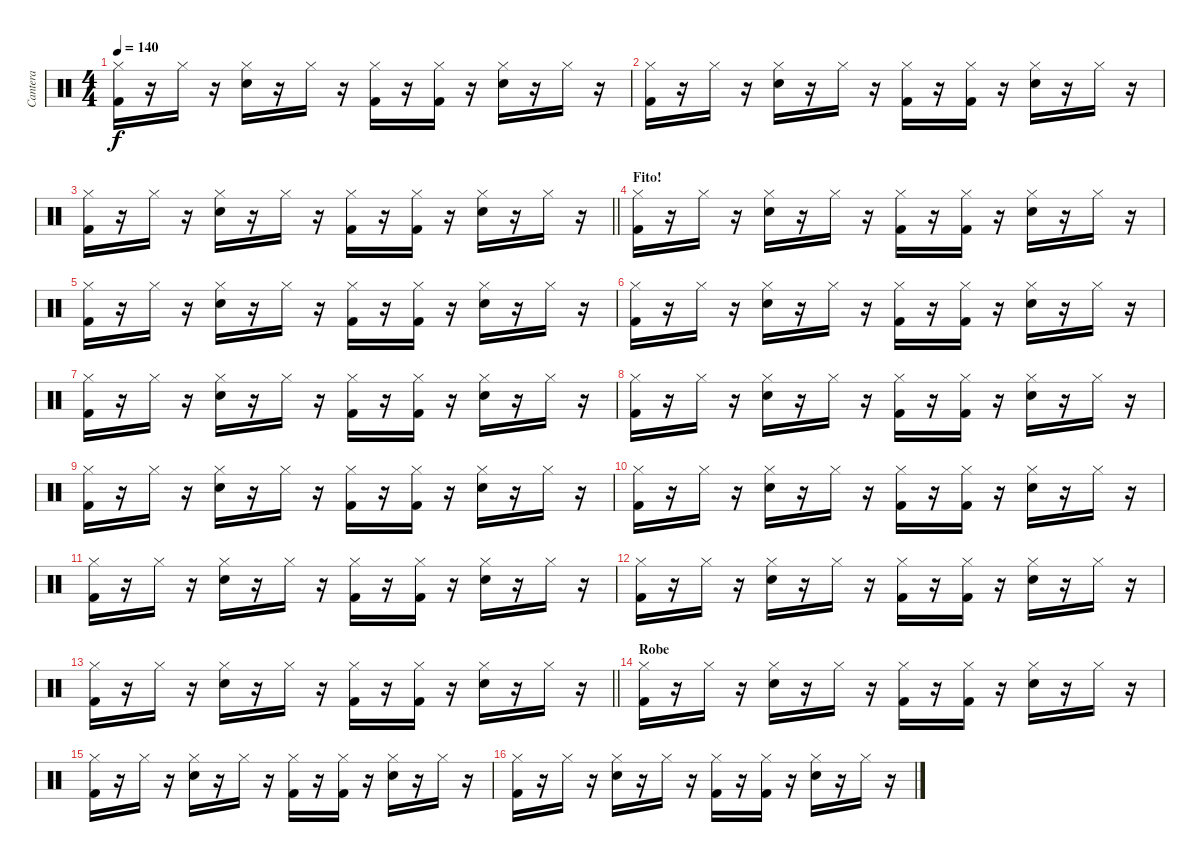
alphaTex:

\track ("Cantera" "Cantera") {instrument percussion}
\staff {score}
\articulation defaults
\ts (4 4)
\tempo 140
\clef neutral
\ks c
("Hi-Hat (closed)" "Kick (hit) 2").16{dy f} r.16 "Hi-Hat (closed)".16 r.16 ("Hi-Hat (closed)" "Snare (hit) 2").16 r.16 "Hi-Hat (closed)".16 r.16 ("Hi-Hat (closed)" "Kick (hit) 2").16 r.16 ("Hi-Hat (closed)" "Kick (hit) 2").16 r.16 ("Hi-Hat (closed)" "Snare (hit) 2").16 r.16 "Hi-Hat (closed)".16 r.16 |
("Hi-Hat (closed)" "Kick (hit) 2").16 r.16 "Hi-Hat (closed)".16 r.16 ("Hi-Hat (closed)" "Snare (hit) 2").16 r.16 "Hi-Hat (closed)".16 r.16 ("Hi-Hat (closed)" "Kick (hit) 2").16 r.16 ("Hi-Hat (closed)" "Kick (hit) 2").16 r.16 ("Hi-Hat (closed)" "Snare (hit) 2").16 r.16 "Hi-Hat (closed)".16 r.16 |
\barLineRight lightlight
("Hi-Hat (closed)" "Kick (hit) 2").16 r.16 "Hi-Hat (closed)".16 r.16 ("Hi-Hat (closed)" "Snare (hit) 2").16 r.16 "Hi-Hat (closed)".16 r.16 ("Hi-Hat (closed)" "Kick (hit) 2").16 r.16 ("Hi-Hat (closed)" "Kick (hit) 2").16 r.16 ("Hi-Hat (closed)" "Snare (hit) 2").16 r.16 "Hi-Hat (closed)".16 r.16 |
\section ("" "Fito!")
("Hi-Hat (closed)" "Kick (hit) 2").16 r.16 "Hi-Hat (closed)".16 r.16 ("Hi-Hat (closed)" "Snare (hit) 2").16 r.16 "Hi-Hat (closed)".16 r.16 ("Hi-Hat (closed)" "Kick (hit) 2").16 r.16 ("Hi-Hat (closed)" "Kick (hit) 2").16 r.16 ("Hi-Hat (closed)" "Snare (hit) 2").16 r.16 "Hi-Hat (closed)".16 r.16 |
("Hi-Hat (closed)" "Kick (hit) 2").16 r.16 "Hi-Hat (closed)".16 r.16 ("Hi-Hat (closed)" "Snare (hit) 2").16 r.16 "Hi-Hat (closed)".16 r.16 ("Hi-Hat (closed)" "Kick (hit) 2").16 r.16 ("Hi-Hat (closed)" "Kick (hit) 2").16 r.16 ("Hi-Hat (closed)" "Snare (hit) 2").16 r.16 "Hi-Hat (closed)".16 r.16 |
("Hi-Hat (closed)" "Kick (hit) 2").16 r.16 "Hi-Hat (closed)".16 r.16 ("Hi-Hat (closed)" "Snare (hit) 2").16 r.16 "Hi-Hat (closed)".16 r.16 ("Hi-Hat (closed)" "Kick (hit) 2").16 r.16 ("Hi-Hat (closed)" "Kick (hit) 2").16 r.16 ("Hi-Hat (closed)" "Snare (hit) 2").16 r.16 "Hi-Hat (closed)".16 r.16 |
("Hi-Hat (closed)" "Kick (hit) 2").16 r.16 "Hi-Hat (closed)".16 r.16 ("Hi-Hat (closed)" "Snare (hit) 2").16 r.16 "Hi-Hat (closed)".16 r.16 ("Hi-Hat (closed)" "Kick (hit) 2").16 r.16 ("Hi-Hat (closed)" "Kick (hit) 2").16 r.16 ("Hi-Hat (closed)" "Snare (hit) 2").16 r.16 "Hi-Hat (closed)".16 r.16 |
("Hi-Hat (closed)" "Kick (hit) 2").16 r.16 "Hi-Hat (closed)".16 r.16 ("Hi-Hat (closed)" "Snare (hit) 2").16 r.16 "Hi-Hat (closed)".16 r.16 ("Hi-Hat (closed)" "Kick (hit) 2").16 r.16 ("Hi-Hat (closed)" "Kick (hit) 2").16 r.16 ("Hi-Hat (closed)" "Snare (hit) 2").16 r.16 "Hi-Hat (closed)".16 r.16 |
("Hi-Hat (closed)" "Kick (hit) 2").16 r.16 "Hi-Hat (closed)".16 r.16 ("Hi-Hat (closed)" "Snare (hit) 2").16 r.16 "Hi-Hat (closed)".16 r.16 ("Hi-Hat (closed)" "Kick (hit) 2").16 r.16 ("Hi-Hat (closed)" "Kick (hit) 2").16 r.16 ("Hi-Hat (closed)" "Snare (hit) 2").16 r.16 "Hi-Hat (closed)".16 r.16 |
("Hi-Hat (closed)" "Kick (hit) 2").16 r.16 "Hi-Hat (closed)".16 r.16 ("Hi-Hat (closed)" "Snare (hit) 2").16 r.16 "Hi-Hat (closed)".16 r.16 ("Hi-Hat (closed)" "Kick (hit) 2").16 r.16 ("Hi-Hat (closed)" "Kick (hit) 2").16 r.16 ("Hi-Hat (closed)" "Snare (hit) 2").16 r.16 "Hi-Hat (closed)".16 r.16 |
("Hi-Hat (closed)" "Kick (hit) 2").16 r.16 "Hi-Hat (closed)".16 r.16 ("Hi-Hat (closed)" "Snare (hit) 2").16 r.16 "Hi-Hat (closed)".16 r.16 ("Hi-Hat (closed)" "Kick (hit) 2").16 r.16 ("Hi-Hat (closed)" "Kick (hit) 2").16 r.16 ("Hi-Hat (closed)" "Snare (hit) 2").16 r.16 "Hi-Hat (closed)".16 r.16 |
("Hi-Hat (closed)" "Kick (hit) 2").16 r.16 "Hi-Hat (closed)".16 r.16 ("Hi-Hat (closed)" "Snare (hit) 2").16 r.16 "Hi-Hat (closed)".16 r.16 ("Hi-Hat (closed)" "Kick (hit) 2").16 r.16 ("Hi-Hat (closed)" "Kick (hit) 2").16 r.16 ("Hi-Hat (closed)" "Snare (hit) 2").16 r.16 "Hi-Hat (closed)".16 r.16 |
\barLineRight lightlight
("Hi-Hat (closed)" "Kick (hit) 2").16 r.16 "Hi-Hat (closed)".16 r.16 ("Hi-Hat (closed)" "Snare (hit) 2").16 r.16 "Hi-Hat (closed)".16 r.16 ("Hi-Hat (closed)" "Kick (hit) 2").16 r.16 ("Hi-Hat (closed)" "Kick (hit) 2").16 r.16 ("Hi-Hat (closed)" "Snare (hit) 2").16 r.16 "Hi-Hat (closed)".16 r.16 |
\section ("" "Robe")
("Hi-Hat (closed)" "Kick (hit) 2").16 r.16 "Hi-Hat (closed)".16 r.16 ("Hi-Hat (closed)" "Snare (hit) 2").16 r.16 "Hi-Hat (closed)".16 r.16 ("Hi-Hat (closed)" "Kick (hit) 2").16 r.16 ("Hi-Hat (closed)" "Kick (hit) 2").16 r.16 ("Hi-Hat (closed)" "Snare (hit) 2").16 r.16 "Hi-Hat (closed)".16 r.16 |
("Hi-Hat (closed)" "Kick (hit) 2").16 r.16 "Hi-Hat (closed)".16 r.16 ("Hi-Hat (closed)" "Snare (hit) 2").16 r.16 "Hi-Hat (closed)".16 r.16 ("Hi-Hat (closed)" "Kick (hit) 2").16 r.16 ("Hi-Hat (closed)" "Kick (hit) 2").16 r.16 ("Hi-Hat (closed)" "Snare (hit) 2").16 r.16 "Hi-Hat (closed)".16 r.16 |
("Hi-Hat (closed)" "Kick (hit) 2").16 r.16 "Hi-Hat (closed)".16 r.16 ("Hi-Hat (closed)" "Snare (hit) 2").16 r.16 "Hi-Hat (closed)".16 r.16 ("Hi-Hat (closed)" "Kick (hit) 2").16 r.16 ("Hi-Hat (closed)" "Kick (hit) 2").16 r.16 ("Hi-Hat (closed)" "Snare (hit) 2").16 r.16 "Hi-Hat (closed)".16 r.16
